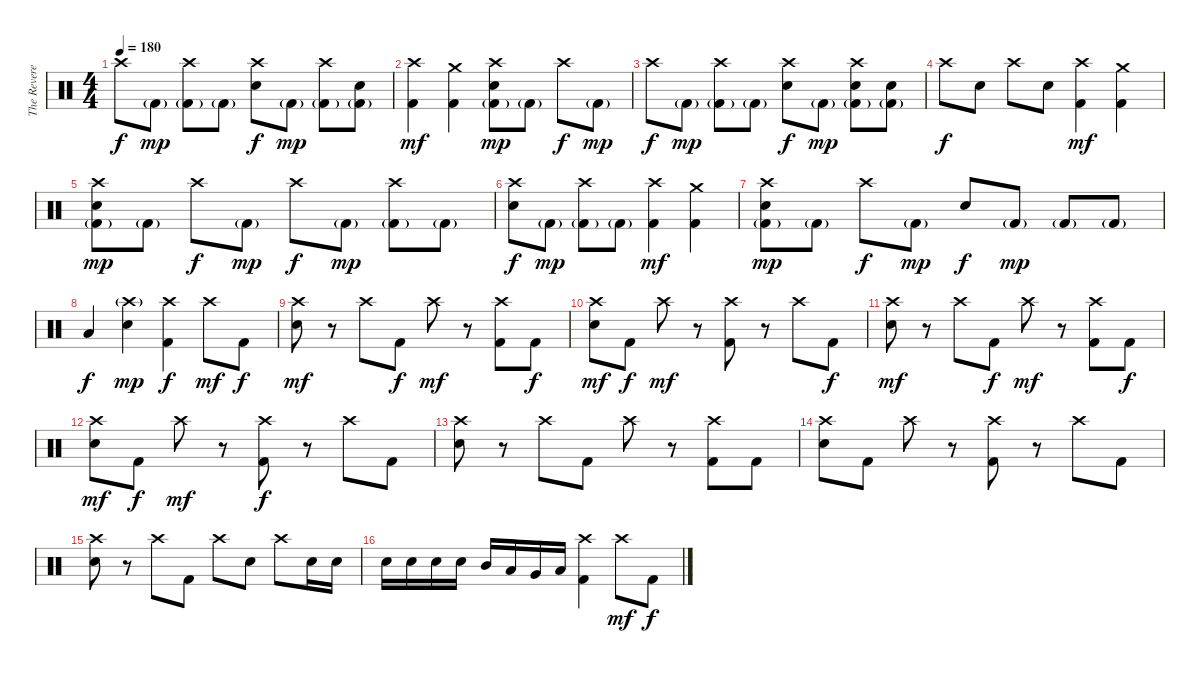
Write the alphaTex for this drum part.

\track ("The Reverend" "The Revere") {instrument percussion}
\staff {score}
\articulation defaults
\ts (4 4)
\tempo 180
\clef neutral
\ks c "Crash high (hit)".8{dy f} "Kick (hit) 2"{g}.8{dy mp}
("Crash high (hit)" "Kick (hit) 2"{g}).8 "Kick (hit) 2"{g}.8 ("Crash high (hit)" "Snare (hit) 2").8{dy f} "Kick (hit) 2"{g}.8{dy mp} ("Crash high (hit)" "Kick (hit) 2"{g}).8 ("Snare (hit) 2" "Kick (hit) 2"{g}).8 |
("Crash high (hit)" "Kick (hit) 2").4{dy mf} ("Crash medium (hit)" "Kick (hit) 2").4 ("Crash high (hit)" "Snare (hit) 2" "Kick (hit) 2"{g}).8{dy mp} "Kick (hit) 2"{g}.8 "Crash high (hit)".8{dy f} "Kick (hit) 2"{g}.8{dy mp} |
"Crash high (hit)".8{dy f} "Kick (hit) 2"{g}.8{dy mp} ("Crash high (hit)" "Kick (hit) 2"{g}).8 "Kick (hit) 2"{g}.8 ("Crash high (hit)" "Snare (hit) 2").8{dy f} "Kick (hit) 2"{g}.8{dy mp} ("Crash high (hit)" "Snare (hit) 2" "Kick (hit) 2"{g}).8 ("Snare (hit) 2" "Kick (hit) 2"{g}).8 |
"Crash high (hit)".8{dy f} "Snare (hit) 2".8 "Crash high (hit)".8 "Snare (hit) 2".8 ("Crash high (hit)" "Kick (hit) 2").4{dy mf} ("Crash medium (hit)" "Kick (hit) 2").4 |
("Crash high (hit)" "Snare (hit) 2" "Kick (hit) 2"{g}).8{dy mp} "Kick (hit) 2"{g}.8 "Crash high (hit)".8{dy f} "Kick (hit) 2"{g}.8{dy mp} "Crash high (hit)".8{dy f} "Kick (hit) 2"{g}.8{dy mp} ("Crash high (hit)" "Kick (hit) 2"{g}).8 "Kick (hit) 2"{g}.8 |
("Crash high (hit)" "Snare (hit) 2").8{dy f} "Kick (hit) 2"{g}.8{dy mp} ("Crash high (hit)" "Kick (hit) 2"{g}).8 "Kick (hit) 2"{g}.8 ("Crash high (hit)" "Kick (hit) 2").4{dy mf} ("Crash medium (hit)" "Kick (hit) 2").4 |
("Crash high (hit)" "Snare (hit) 2" "Kick (hit) 2"{g}).8{dy mp} "Kick (hit) 2"{g}.8 "Crash high (hit)".8{dy f} "Kick (hit) 2"{g}.8{dy mp} "Snare (hit) 2".8{dy f} "Kick (hit) 2"{g}.8{dy mp} "Kick (hit) 2"{g}.8 "Kick (hit) 2"{g}.8 |
"Low Floor Tom (hit)".4{dy f} ("Crash high (hit)"{g} "Snare (hit) 2").4{dy mp} ("Crash high (hit)" "Kick (hit) 2").4{dy f} "Crash high (hit)".8{dy mf} "Kick (hit) 2".8{dy f} |
("Crash high (hit)" "Snare (hit) 2").8{dy mf} r.8 "Crash high (hit)".8 "Kick (hit) 2".8{dy f} "Crash high (hit)".8{dy mf} r.8 ("Crash high (hit)" "Kick (hit) 2").8 "Kick (hit) 2".8{dy f} |
("Crash high (hit)" "Snare (hit) 2").8{dy mf} "Kick (hit) 2".8{dy f} "Crash high (hit)".8{dy mf} r.8 ("Crash high (hit)" "Kick (hit) 2").8 r.8 "Crash high (hit)".8 "Kick (hit) 2".8{dy f} |
("Crash high (hit)" "Snare (hit) 2").8{dy mf} r.8 "Crash high (hit)".8 "Kick (hit) 2".8{dy f} "Crash high (hit)".8{dy mf} r.8 ("Crash high (hit)" "Kick (hit) 2").8 "Kick (hit) 2".8{dy f} |
("Crash high (hit)" "Snare (hit) 2").8{dy mf} "Kick (hit) 2".8{dy f} "Crash high (hit)".8{dy mf} r.8 ("Crash high (hit)" "Kick (hit) 2").8{dy f} r.8 "Crash high (hit)".8 "Kick (hit) 2".8 |
("Crash high (hit)" "Snare (hit) 2").8 r.8 "Crash high (hit)".8 "Kick (hit) 2".8 "Crash high (hit)".8 r.8 ("Crash high (hit)" "Kick (hit) 2").8 "Kick (hit) 2".8 |
("Crash high (hit)" "Snare (hit) 2").8 "Kick (hit) 2".8 "Crash high (hit)".8 r.8 ("Crash high (hit)" "Kick (hit) 2").8 r.8 "Crash high (hit)".8 "Kick (hit) 2".8 |
("Crash high (hit)" "Snare (hit) 2").8 r.8 "Crash high (hit)".8 "Kick (hit) 2".8 "Crash high (hit)".8 "Snare (hit) 2".8 "Crash high (hit)".8 "Snare (hit) 2".16 "Snare (hit) 2".16 |
"Snare (hit) 2".16 "Snare (hit) 2".16 "Snare (hit) 2".16 "Snare (hit) 2".16 "Mid Tom (hit)".16 "Low Tom (hit)".16 "Very Low Tom (hit)".16 "Low Floor Tom (hit)".16 ("Crash high (hit)" "Kick (hit) 2").4 "Crash high (hit)".8{dy mf} "Kick (hit) 2".8{dy f}
